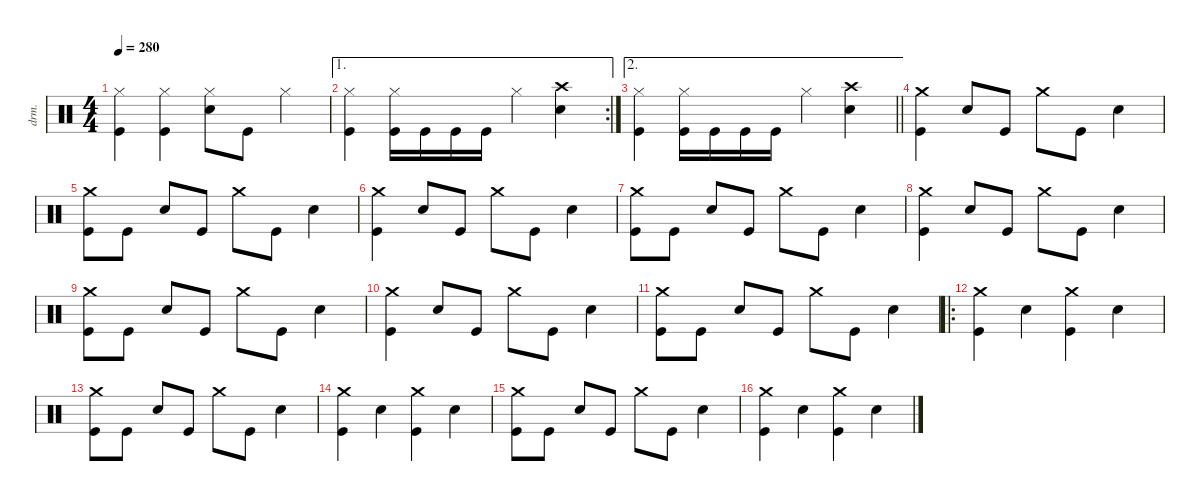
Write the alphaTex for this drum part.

\defaultSystemsLayout 4
\hideDynamics
\bracketExtendMode nobrackets
\otherSystemsTrackNameOrientation horizontal
\track ("Nick Menza" "drm.") {instrument percussion}
\staff {score}
\articulation defaults
\ts (4 4)
\tempo 280
\clef neutral
\ks c
("Hi-Hat (closed)" "Kick (hit)").4{dy f beam Down} ("Hi-Hat (closed)" "Kick (hit)").4{beam Down} ("Hi-Hat (closed)" "Snare (hit) 2").8{beam Down} "Kick (hit)".8{beam Down} "Hi-Hat (closed)".4{beam Down} |
\ae 1
\rc 2
("Hi-Hat (closed)" "Kick (hit)").4{beam Down} ("Hi-Hat (closed)" "Kick (hit)").16{beam Down} "Kick (hit)".16{beam Down} "Kick (hit)".16{beam Down} "Kick (hit)".16{beam Down} "Hi-Hat (closed)".4{beam Down} ("Crash high (hit)" "Snare (hit) 2").4{beam Down} |
\ae 2
\barLineRight lightlight
("Hi-Hat (closed)" "Kick (hit)").4{beam Down} ("Hi-Hat (closed)" "Kick (hit)").16{beam Down} "Kick (hit)".16{beam Down} "Kick (hit)".16{beam Down} "Kick (hit)".16{beam Down} "Hi-Hat (closed)".4{beam Down} ("Crash high (hit)" "Snare (hit) 2").4{beam Down} |
("Crash medium (hit)" "Kick (hit)").4{beam Down} "Snare (hit) 2".8{beam Up} "Kick (hit)".8{beam Up} "Crash medium (hit)".8{beam Down} "Kick (hit)".8{beam Down} "Snare (hit) 2".4{beam Down} |
("Crash medium (hit)" "Kick (hit)").8{beam Down} "Kick (hit)".8{beam Down} "Snare (hit) 2".8{beam Up} "Kick (hit)".8{beam Up} "Crash medium (hit)".8{beam Down} "Kick (hit)".8{beam Down} "Snare (hit) 2".4{beam Down} |
("Crash medium (hit)" "Kick (hit)").4{beam Down} "Snare (hit) 2".8{beam Up} "Kick (hit)".8{beam Up} "Crash medium (hit)".8{beam Down} "Kick (hit)".8{beam Down} "Snare (hit) 2".4{beam Down} |
("Crash medium (hit)" "Kick (hit)").8{beam Down} "Kick (hit)".8{beam Down} "Snare (hit) 2".8{beam Up} "Kick (hit)".8{beam Up} "Crash medium (hit)".8{beam Down} "Kick (hit)".8{beam Down} "Snare (hit) 2".4{beam Down} |
("Crash medium (hit)" "Kick (hit)").4{beam Down} "Snare (hit) 2".8{beam Up} "Kick (hit)".8{beam Up} "Crash medium (hit)".8{beam Down} "Kick (hit)".8{beam Down} "Snare (hit) 2".4{beam Down} |
("Crash medium (hit)" "Kick (hit)").8{beam Down} "Kick (hit)".8{beam Down} "Snare (hit) 2".8{beam Up} "Kick (hit)".8{beam Up} "Crash medium (hit)".8{beam Down} "Kick (hit)".8{beam Down} "Snare (hit) 2".4{beam Down} |
("Crash medium (hit)" "Kick (hit)").4{beam Down} "Snare (hit) 2".8{beam Up} "Kick (hit)".8{beam Up} "Crash medium (hit)".8{beam Down} "Kick (hit)".8{beam Down} "Snare (hit) 2".4{beam Down} |
("Crash medium (hit)" "Kick (hit)").8{beam Down} "Kick (hit)".8{beam Down} "Snare (hit) 2".8{beam Up} "Kick (hit)".8{beam Up} "Crash medium (hit)".8{beam Down} "Kick (hit)".8{beam Down} "Snare (hit) 2".4{beam Down} |
\ro
("Crash medium (hit)" "Kick (hit)").4{beam Down} "Snare (hit) 2".4{beam Down} ("Crash medium (hit)" "Kick (hit)").4{beam Down} "Snare (hit) 2".4{beam Down} |
("Crash medium (hit)" "Kick (hit)").8{beam Down} "Kick (hit)".8{beam Down} "Snare (hit) 2".8{beam Up} "Kick (hit)".8{beam Up} "Crash medium (hit)".8{beam Down} "Kick (hit)".8{beam Down} "Snare (hit) 2".4{beam Down} |
("Crash medium (hit)" "Kick (hit)").4{beam Down} "Snare (hit) 2".4{beam Down} ("Crash medium (hit)" "Kick (hit)").4{beam Down} "Snare (hit) 2".4{beam Down} |
("Crash medium (hit)" "Kick (hit)").8{beam Down} "Kick (hit)".8{beam Down} "Snare (hit) 2".8{beam Up} "Kick (hit)".8{beam Up} "Crash medium (hit)".8{beam Down} "Kick (hit)".8{beam Down} "Snare (hit) 2".4{beam Down} |
("Crash medium (hit)" "Kick (hit)").4{beam Down} "Snare (hit) 2".4{beam Down} ("Crash medium (hit)" "Kick (hit)").4{beam Down} "Snare (hit) 2".4{beam Down}
